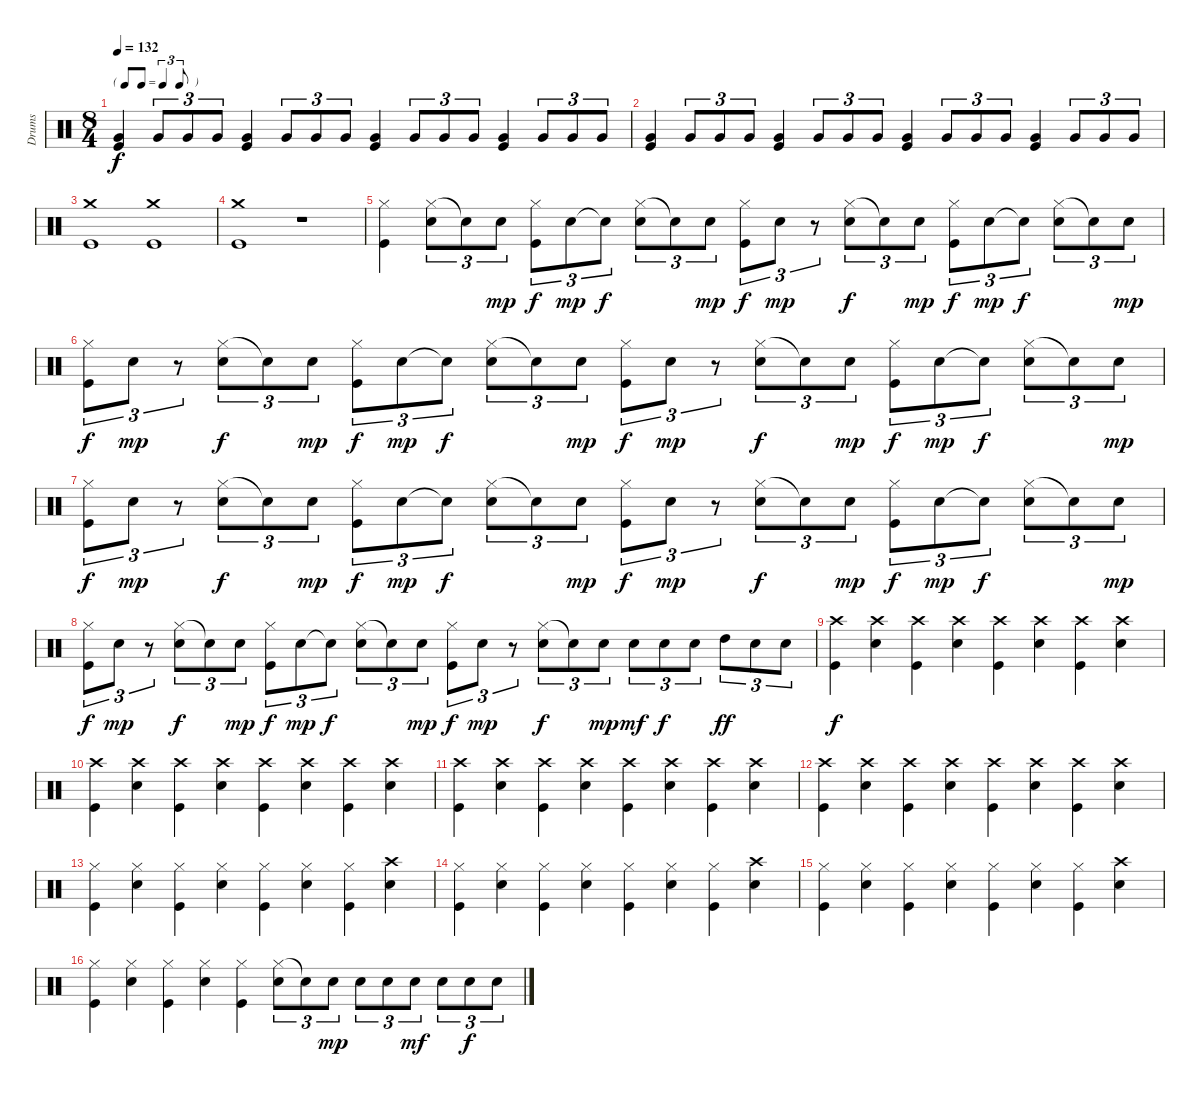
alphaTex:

\track ("Drums" "Drums") {instrument percussion}
\staff {score}
\articulation defaults
\ts (8 4)
\tf triplet8th
\tempo 132
\clef neutral
\ks c
("Very Low Tom (hit)" "Kick (hit)").4{dy f} "Very Low Tom (hit)".8{tu (3 2)} "Very Low Tom (hit)".8{tu (3 2)} "Very Low Tom (hit)".8{tu (3 2)} ("Very Low Tom (hit)" "Kick (hit)").4 "Very Low Tom (hit)".8{tu (3 2)} "Very Low Tom (hit)".8{tu (3 2)} "Very Low Tom (hit)".8{tu (3 2)} ("Very Low Tom (hit)" "Kick (hit)").4 "Very Low Tom (hit)".8{tu (3 2)} "Very Low Tom (hit)".8{tu (3 2)} "Very Low Tom (hit)".8{tu (3 2)} ("Very Low Tom (hit)" "Kick (hit)").4 "Very Low Tom (hit)".8{tu (3 2)} "Very Low Tom (hit)".8{tu (3 2)} "Very Low Tom (hit)".8{tu (3 2)} |
("Very Low Tom (hit)" "Kick (hit)").4 "Very Low Tom (hit)".8{tu (3 2)} "Very Low Tom (hit)".8{tu (3 2)} "Very Low Tom (hit)".8{tu (3 2)} ("Very Low Tom (hit)" "Kick (hit)").4 "Very Low Tom (hit)".8{tu (3 2)} "Very Low Tom (hit)".8{tu (3 2)} "Very Low Tom (hit)".8{tu (3 2)} ("Very Low Tom (hit)" "Kick (hit)").4 "Very Low Tom (hit)".8{tu (3 2)} "Very Low Tom (hit)".8{tu (3 2)} "Very Low Tom (hit)".8{tu (3 2)} ("Very Low Tom (hit)" "Kick (hit)").4 "Very Low Tom (hit)".8{tu (3 2)} "Very Low Tom (hit)".8{tu (3 2)} "Very Low Tom (hit)".8{tu (3 2)} |
("Crash medium (hit)" "Kick (hit)").1 ("Crash medium (hit)" "Kick (hit)").1 |
("Crash medium (hit)" "Kick (hit)").1 r.1 |
("Hi-Hat (closed)" "Kick (hit)").4 ("Hi-Hat (closed)" "Electric Snare (hit)").8{tu (3 2)} "Snare (hit)"{t}.8{tu (3 2)} "Electric Snare (hit)".8{tu (3 2) dy mp} ("Hi-Hat (closed)" "Kick (hit)").8{tu (3 2) dy f} "Electric Snare (hit)".8{tu (3 2) dy mp} "Snare (hit)"{t}.8{tu (3 2) dy f} ("Hi-Hat (closed)" "Electric Snare (hit)").8{tu (3 2)} "Snare (hit)"{t}.8{tu (3 2)} "Electric Snare (hit)".8{tu (3 2) dy mp} ("Hi-Hat (closed)" "Kick (hit)").8{tu (3 2) dy f} "Electric Snare (hit)".8{tu (3 2) dy mp} r.8{tu (3 2)} ("Hi-Hat (closed)" "Electric Snare (hit)").8{tu (3 2) dy f} "Snare (hit)"{t}.8{tu (3 2)} "Electric Snare (hit)".8{tu (3 2) dy mp} ("Hi-Hat (closed)" "Kick (hit)").8{tu (3 2) dy f} "Electric Snare (hit)".8{tu (3 2) dy mp} "Snare (hit)"{t}.8{tu (3 2) dy f} ("Hi-Hat (closed)" "Electric Snare (hit)").8{tu (3 2)} "Snare (hit)"{t}.8{tu (3 2)} "Electric Snare (hit)".8{tu (3 2) dy mp} |
("Hi-Hat (closed)" "Kick (hit)").8{tu (3 2) dy f} "Electric Snare (hit)".8{tu (3 2) dy mp} r.8{tu (3 2)} ("Hi-Hat (closed)" "Electric Snare (hit)").8{tu (3 2) dy f} "Snare (hit)"{t}.8{tu (3 2)} "Electric Snare (hit)".8{tu (3 2) dy mp} ("Hi-Hat (closed)" "Kick (hit)").8{tu (3 2) dy f} "Electric Snare (hit)".8{tu (3 2) dy mp} "Snare (hit)"{t}.8{tu (3 2) dy f} ("Hi-Hat (closed)" "Electric Snare (hit)").8{tu (3 2)} "Snare (hit)"{t}.8{tu (3 2)} "Electric Snare (hit)".8{tu (3 2) dy mp} ("Hi-Hat (closed)" "Kick (hit)").8{tu (3 2) dy f} "Electric Snare (hit)".8{tu (3 2) dy mp} r.8{tu (3 2)} ("Hi-Hat (closed)" "Electric Snare (hit)").8{tu (3 2) dy f} "Snare (hit)"{t}.8{tu (3 2)} "Electric Snare (hit)".8{tu (3 2) dy mp} ("Hi-Hat (closed)" "Kick (hit)").8{tu (3 2) dy f} "Electric Snare (hit)".8{tu (3 2) dy mp} "Snare (hit)"{t}.8{tu (3 2) dy f} ("Hi-Hat (closed)" "Electric Snare (hit)").8{tu (3 2)} "Snare (hit)"{t}.8{tu (3 2)} "Electric Snare (hit)".8{tu (3 2) dy mp} |
("Hi-Hat (closed)" "Kick (hit)").8{tu (3 2) dy f} "Electric Snare (hit)".8{tu (3 2) dy mp} r.8{tu (3 2)} ("Hi-Hat (closed)" "Electric Snare (hit)").8{tu (3 2) dy f} "Snare (hit)"{t}.8{tu (3 2)} "Electric Snare (hit)".8{tu (3 2) dy mp} ("Hi-Hat (closed)" "Kick (hit)").8{tu (3 2) dy f} "Electric Snare (hit)".8{tu (3 2) dy mp} "Snare (hit)"{t}.8{tu (3 2) dy f} ("Hi-Hat (closed)" "Electric Snare (hit)").8{tu (3 2)} "Snare (hit)"{t}.8{tu (3 2)} "Electric Snare (hit)".8{tu (3 2) dy mp} ("Hi-Hat (closed)" "Kick (hit)").8{tu (3 2) dy f} "Electric Snare (hit)".8{tu (3 2) dy mp} r.8{tu (3 2)} ("Hi-Hat (closed)" "Electric Snare (hit)").8{tu (3 2) dy f} "Snare (hit)"{t}.8{tu (3 2)} "Electric Snare (hit)".8{tu (3 2) dy mp} ("Hi-Hat (closed)" "Kick (hit)").8{tu (3 2) dy f} "Electric Snare (hit)".8{tu (3 2) dy mp} "Snare (hit)"{t}.8{tu (3 2) dy f} ("Hi-Hat (closed)" "Electric Snare (hit)").8{tu (3 2)} "Snare (hit)"{t}.8{tu (3 2)} "Electric Snare (hit)".8{tu (3 2) dy mp} |
("Hi-Hat (closed)" "Kick (hit)").8{tu (3 2) dy f} "Electric Snare (hit)".8{tu (3 2) dy mp} r.8{tu (3 2)} ("Hi-Hat (closed)" "Electric Snare (hit)").8{tu (3 2) dy f} "Snare (hit)"{t}.8{tu (3 2)} "Electric Snare (hit)".8{tu (3 2) dy mp} ("Hi-Hat (closed)" "Kick (hit)").8{tu (3 2) dy f} "Electric Snare (hit)".8{tu (3 2) dy mp} "Snare (hit)"{t}.8{tu (3 2) dy f} ("Hi-Hat (closed)" "Electric Snare (hit)").8{tu (3 2)} "Snare (hit)"{t}.8{tu (3 2)} "Electric Snare (hit)".8{tu (3 2) dy mp} ("Hi-Hat (closed)" "Kick (hit)").8{tu (3 2) dy f} "Electric Snare (hit)".8{tu (3 2) dy mp} r.8{tu (3 2)} ("Hi-Hat (closed)" "Electric Snare (hit)").8{tu (3 2) dy f} "Snare (hit)"{t}.8{tu (3 2)} "Electric Snare (hit)".8{tu (3 2) dy mp} "Electric Snare (hit)".8{tu (3 2) dy mf} "Electric Snare (hit)".8{tu (3 2) dy f} "Electric Snare (hit)".8{tu (3 2)} "High Tom (hit)".8{tu (3 2) dy ff} "Electric Snare (hit)".8{tu (3 2)} "Electric Snare (hit)".8{tu (3 2)} |
("Crash high (hit)" "Kick (hit)").4{dy f} ("Crash high (hit)" "Electric Snare (hit)").4 ("Crash high (hit)" "Kick (hit)").4 ("Crash high (hit)" "Electric Snare (hit)").4 ("Crash high (hit)" "Kick (hit)").4 ("Crash high (hit)" "Electric Snare (hit)").4 ("Crash high (hit)" "Kick (hit)").4 ("Crash high (hit)" "Electric Snare (hit)").4 |
("Crash high (hit)" "Kick (hit)").4 ("Crash high (hit)" "Electric Snare (hit)").4 ("Crash high (hit)" "Kick (hit)").4 ("Crash high (hit)" "Electric Snare (hit)").4 ("Crash high (hit)" "Kick (hit)").4 ("Crash high (hit)" "Electric Snare (hit)").4 ("Crash high (hit)" "Kick (hit)").4 ("Crash high (hit)" "Electric Snare (hit)").4 |
("Crash high (hit)" "Kick (hit)").4 ("Crash high (hit)" "Electric Snare (hit)").4 ("Crash high (hit)" "Kick (hit)").4 ("Crash high (hit)" "Electric Snare (hit)").4 ("Crash high (hit)" "Kick (hit)").4 ("Crash high (hit)" "Electric Snare (hit)").4 ("Crash high (hit)" "Kick (hit)").4 ("Crash high (hit)" "Electric Snare (hit)").4 |
("Crash high (hit)" "Kick (hit)").4 ("Crash high (hit)" "Electric Snare (hit)").4 ("Crash high (hit)" "Kick (hit)").4 ("Crash high (hit)" "Electric Snare (hit)").4 ("Crash high (hit)" "Kick (hit)").4 ("Crash high (hit)" "Electric Snare (hit)").4 ("Crash high (hit)" "Kick (hit)").4 ("Crash high (hit)" "Electric Snare (hit)").4 |
("Hi-Hat (closed)" "Kick (hit)").4 ("Hi-Hat (closed)" "Electric Snare (hit)").4 ("Hi-Hat (closed)" "Kick (hit)").4 ("Hi-Hat (closed)" "Electric Snare (hit)").4 ("Hi-Hat (closed)" "Kick (hit)").4 ("Hi-Hat (closed)" "Electric Snare (hit)").4 ("Hi-Hat (closed)" "Kick (hit)").4 ("Crash high (hit)" "Electric Snare (hit)").4 |
("Hi-Hat (closed)" "Kick (hit)").4 ("Hi-Hat (closed)" "Electric Snare (hit)").4 ("Hi-Hat (closed)" "Kick (hit)").4 ("Hi-Hat (closed)" "Electric Snare (hit)").4 ("Hi-Hat (closed)" "Kick (hit)").4 ("Hi-Hat (closed)" "Electric Snare (hit)").4 ("Hi-Hat (closed)" "Kick (hit)").4 ("Crash high (hit)" "Electric Snare (hit)").4 |
("Hi-Hat (closed)" "Kick (hit)").4 ("Hi-Hat (closed)" "Electric Snare (hit)").4 ("Hi-Hat (closed)" "Kick (hit)").4 ("Hi-Hat (closed)" "Electric Snare (hit)").4 ("Hi-Hat (closed)" "Kick (hit)").4 ("Hi-Hat (closed)" "Electric Snare (hit)").4 ("Hi-Hat (closed)" "Kick (hit)").4 ("Crash high (hit)" "Electric Snare (hit)").4 |
("Hi-Hat (closed)" "Kick (hit)").4 ("Hi-Hat (closed)" "Electric Snare (hit)").4 ("Hi-Hat (closed)" "Kick (hit)").4 ("Hi-Hat (closed)" "Electric Snare (hit)").4 ("Hi-Hat (closed)" "Kick (hit)").4 ("Hi-Hat (closed)" "Electric Snare (hit)").8{tu (3 2)} "Snare (hit)"{t}.8{tu (3 2)} "Electric Snare (hit)".8{tu (3 2) dy mp} "Electric Snare (hit)".8{tu (3 2)} "Electric Snare (hit)".8{tu (3 2)} "Electric Snare (hit)".8{tu (3 2) dy mf} "Electric Snare (hit)".8{tu (3 2)} "Electric Snare (hit)".8{tu (3 2) dy f} "Electric Snare (hit)".8{tu (3 2)}
